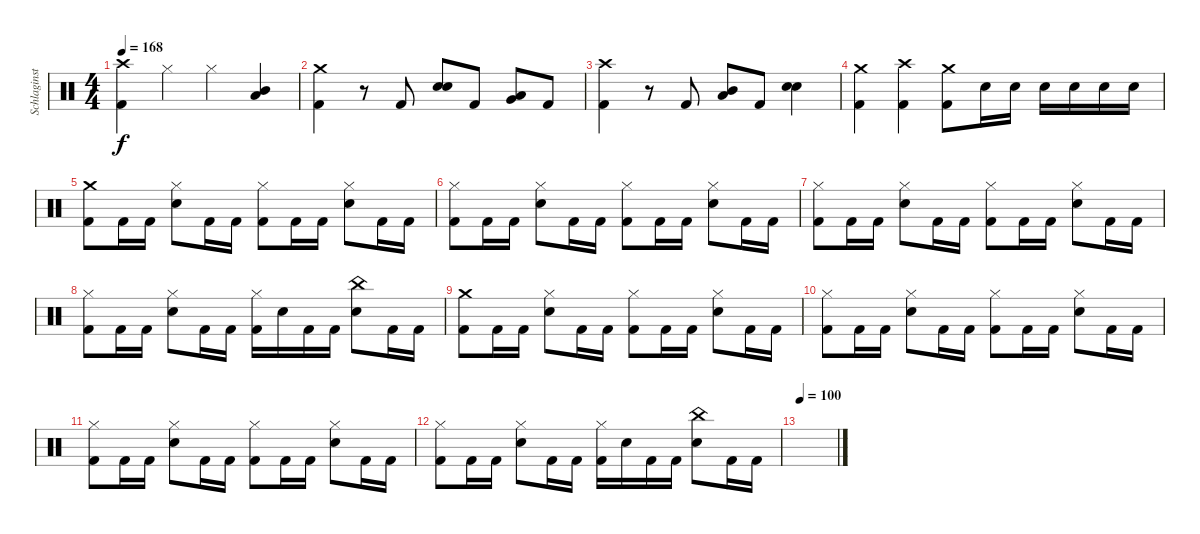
\track ("Schlaginstrumente - Auswahl" "Schlaginst") {instrument percussion}
\staff {score}
\articulation defaults
\ts (4 4)
\tempo 168
\clef neutral
\ks c
("Crash high (hit)" "Kick (hit) 2").4{dy f} "Hi-Hat (closed)".4 "Hi-Hat (closed)".4 ("Low Tom (hit)" "Mid Tom (hit)").4 |
("Crash medium (hit)" "Kick (hit) 2").4 r.8 "Kick (hit) 2".8 ("Snare (hit) 2" "Snare (hit) 2").8 "Kick (hit) 2".8 ("Very Low Tom (hit)" "Low Tom (hit)").8 "Kick (hit) 2".8 |
("Crash high (hit)" "Kick (hit) 2").4 r.8 "Kick (hit) 2".8 ("Mid Tom (hit)" "Low Tom (hit)").8 "Kick (hit) 2".8 ("Snare (hit) 2" "Snare (hit) 2").4 |
("Crash medium (hit)" "Kick (hit) 2").4 ("Crash high (hit)" "Kick (hit) 2").4 ("Crash medium (hit)" "Kick (hit) 2").8 "Snare (hit) 2".16 "Snare (hit) 2".16 "Snare (hit) 2".16 "Snare (hit) 2".16 "Snare (hit) 2".16 "Snare (hit) 2".16 |
("Crash medium (hit)" "Kick (hit) 2").8 "Kick (hit) 2".16 "Kick (hit) 2".16 ("Hi-Hat (closed)" "Snare (hit) 2").8 "Kick (hit) 2".16 "Kick (hit) 2".16 ("Hi-Hat (closed)" "Kick (hit) 2").8 "Kick (hit) 2".16 "Kick (hit) 2".16 ("Hi-Hat (closed)" "Snare (hit) 2").8 "Kick (hit) 2".16 "Kick (hit) 2".16 |
("Hi-Hat (closed)" "Kick (hit) 2").8 "Kick (hit) 2".16 "Kick (hit) 2".16 ("Hi-Hat (closed)" "Snare (hit) 2").8 "Kick (hit) 2".16 "Kick (hit) 2".16 ("Hi-Hat (closed)" "Kick (hit) 2").8 "Kick (hit) 2".16 "Kick (hit) 2".16 ("Hi-Hat (closed)" "Snare (hit) 2").8 "Kick (hit) 2".16 "Kick (hit) 2".16 |
("Hi-Hat (closed)" "Kick (hit) 2").8 "Kick (hit) 2".16 "Kick (hit) 2".16 ("Hi-Hat (closed)" "Snare (hit) 2").8 "Kick (hit) 2".16 "Kick (hit) 2".16 ("Hi-Hat (closed)" "Kick (hit) 2").8 "Kick (hit) 2".16 "Kick (hit) 2".16 ("Hi-Hat (closed)" "Snare (hit) 2").8 "Kick (hit) 2".16 "Kick (hit) 2".16 |
("Hi-Hat (closed)" "Kick (hit) 2").8 "Kick (hit) 2".16 "Kick (hit) 2".16 ("Hi-Hat (closed)" "Snare (hit) 2").8 "Kick (hit) 2".16 "Kick (hit) 2".16 ("Hi-Hat (closed)" "Kick (hit) 2").16 "Snare (hit) 2".16 "Kick (hit) 2".16 "Kick (hit) 2".16 ("China (hit)" "Snare (hit) 2").8 "Kick (hit) 2".16 "Kick (hit) 2".16 |
("Crash medium (hit)" "Kick (hit) 2").8 "Kick (hit) 2".16 "Kick (hit) 2".16 ("Hi-Hat (closed)" "Snare (hit) 2").8 "Kick (hit) 2".16 "Kick (hit) 2".16 ("Hi-Hat (closed)" "Kick (hit) 2").8 "Kick (hit) 2".16 "Kick (hit) 2".16 ("Hi-Hat (closed)" "Snare (hit) 2").8 "Kick (hit) 2".16 "Kick (hit) 2".16 |
("Hi-Hat (closed)" "Kick (hit) 2").8 "Kick (hit) 2".16 "Kick (hit) 2".16 ("Hi-Hat (closed)" "Snare (hit) 2").8 "Kick (hit) 2".16 "Kick (hit) 2".16 ("Hi-Hat (closed)" "Kick (hit) 2").8 "Kick (hit) 2".16 "Kick (hit) 2".16 ("Hi-Hat (closed)" "Snare (hit) 2").8 "Kick (hit) 2".16 "Kick (hit) 2".16 |
("Hi-Hat (closed)" "Kick (hit) 2").8 "Kick (hit) 2".16 "Kick (hit) 2".16 ("Hi-Hat (closed)" "Snare (hit) 2").8 "Kick (hit) 2".16 "Kick (hit) 2".16 ("Hi-Hat (closed)" "Kick (hit) 2").8 "Kick (hit) 2".16 "Kick (hit) 2".16 ("Hi-Hat (closed)" "Snare (hit) 2").8 "Kick (hit) 2".16 "Kick (hit) 2".16 |
("Hi-Hat (closed)" "Kick (hit) 2").8 "Kick (hit) 2".16 "Kick (hit) 2".16 ("Hi-Hat (closed)" "Snare (hit) 2").8 "Kick (hit) 2".16 "Kick (hit) 2".16 ("Hi-Hat (closed)" "Kick (hit) 2").16 "Snare (hit) 2".16 "Kick (hit) 2".16 "Kick (hit) 2".16 ("China (hit)" "Snare (hit) 2").8 "Kick (hit) 2".16 "Kick (hit) 2".16 |
\tempo 100
